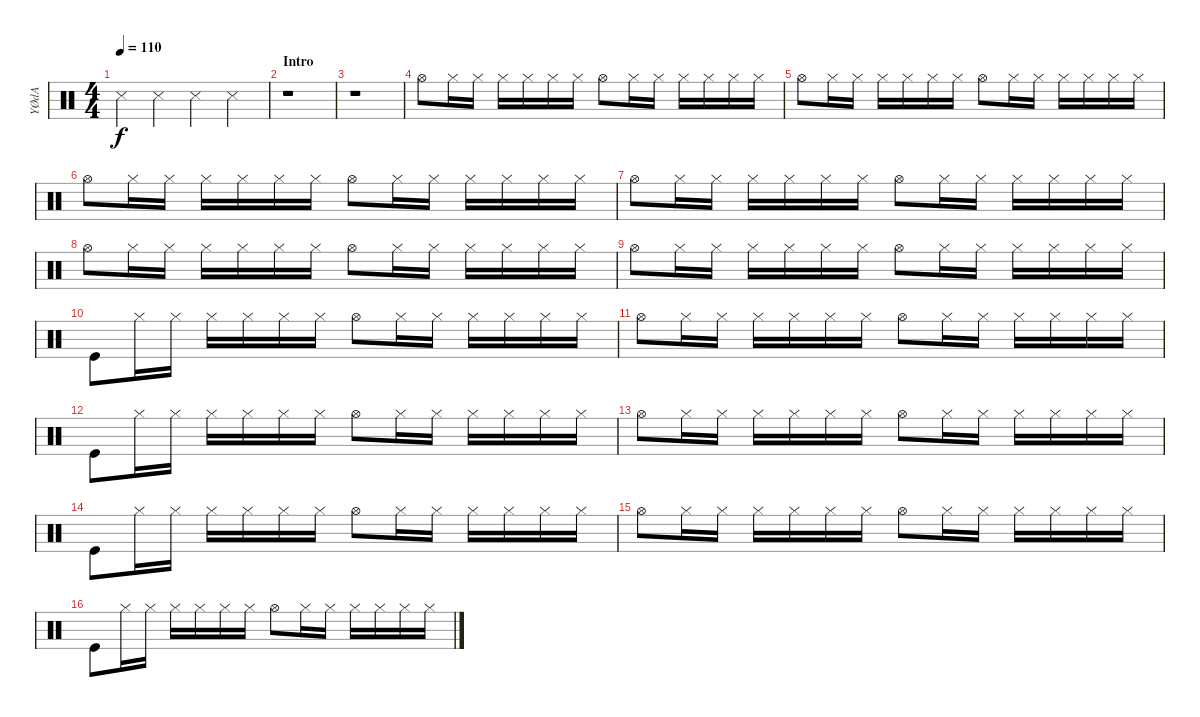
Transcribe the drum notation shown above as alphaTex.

\track ("YØdA" "YØdA") {instrument percussion}
\staff {score}
\articulation defaults
\ts (4 4)
\tempo 110
\clef neutral
\ks c "Snare (side stick) 3".4{dy f} "Snare (side stick) 3".4 "Snare (side stick) 3".4 "Snare (side stick) 3".4
|
\section ("" "Intro")
r.1 |
r.1 |
"Hi-Hat (open)".8 "Hi-Hat (closed)".16 "Hi-Hat (closed)".16 "Hi-Hat (closed)".16 "Hi-Hat (closed)".16 "Hi-Hat (closed)".16 "Hi-Hat (closed)".16 "Hi-Hat (open)".8 "Hi-Hat (closed)".16 "Hi-Hat (closed)".16 "Hi-Hat (closed)".16 "Hi-Hat (closed)".16 "Hi-Hat (closed)".16 "Hi-Hat (closed)".16 |
"Hi-Hat (open)".8 "Hi-Hat (closed)".16 "Hi-Hat (closed)".16 "Hi-Hat (closed)".16 "Hi-Hat (closed)".16 "Hi-Hat (closed)".16 "Hi-Hat (closed)".16 "Hi-Hat (open)".8 "Hi-Hat (closed)".16 "Hi-Hat (closed)".16 "Hi-Hat (closed)".16 "Hi-Hat (closed)".16 "Hi-Hat (closed)".16 "Hi-Hat (closed)".16 |
"Hi-Hat (open)".8 "Hi-Hat (closed)".16 "Hi-Hat (closed)".16 "Hi-Hat (closed)".16 "Hi-Hat (closed)".16 "Hi-Hat (closed)".16 "Hi-Hat (closed)".16 "Hi-Hat (open)".8 "Hi-Hat (closed)".16 "Hi-Hat (closed)".16 "Hi-Hat (closed)".16 "Hi-Hat (closed)".16 "Hi-Hat (closed)".16 "Hi-Hat (closed)".16 |
"Hi-Hat (open)".8 "Hi-Hat (closed)".16 "Hi-Hat (closed)".16 "Hi-Hat (closed)".16 "Hi-Hat (closed)".16 "Hi-Hat (closed)".16 "Hi-Hat (closed)".16 "Hi-Hat (open)".8 "Hi-Hat (closed)".16 "Hi-Hat (closed)".16 "Hi-Hat (closed)".16 "Hi-Hat (closed)".16 "Hi-Hat (closed)".16 "Hi-Hat (closed)".16 |
"Hi-Hat (open)".8 "Hi-Hat (closed)".16 "Hi-Hat (closed)".16 "Hi-Hat (closed)".16 "Hi-Hat (closed)".16 "Hi-Hat (closed)".16 "Hi-Hat (closed)".16 "Hi-Hat (open)".8 "Hi-Hat (closed)".16 "Hi-Hat (closed)".16 "Hi-Hat (closed)".16 "Hi-Hat (closed)".16 "Hi-Hat (closed)".16 "Hi-Hat (closed)".16 |
"Hi-Hat (open)".8 "Hi-Hat (closed)".16 "Hi-Hat (closed)".16 "Hi-Hat (closed)".16 "Hi-Hat (closed)".16 "Hi-Hat (closed)".16 "Hi-Hat (closed)".16 "Hi-Hat (open)".8 "Hi-Hat (closed)".16 "Hi-Hat (closed)".16 "Hi-Hat (closed)".16 "Hi-Hat (closed)".16 "Hi-Hat (closed)".16 "Hi-Hat (closed)".16 |
"Kick (hit)".8 "Hi-Hat (closed)".16 "Hi-Hat (closed)".16 "Hi-Hat (closed)".16 "Hi-Hat (closed)".16 "Hi-Hat (closed)".16 "Hi-Hat (closed)".16 "Hi-Hat (open)".8 "Hi-Hat (closed)".16 "Hi-Hat (closed)".16 "Hi-Hat (closed)".16 "Hi-Hat (closed)".16 "Hi-Hat (closed)".16 "Hi-Hat (closed)".16 |
"Hi-Hat (open)".8 "Hi-Hat (closed)".16 "Hi-Hat (closed)".16 "Hi-Hat (closed)".16 "Hi-Hat (closed)".16 "Hi-Hat (closed)".16 "Hi-Hat (closed)".16 "Hi-Hat (open)".8 "Hi-Hat (closed)".16 "Hi-Hat (closed)".16 "Hi-Hat (closed)".16 "Hi-Hat (closed)".16 "Hi-Hat (closed)".16 "Hi-Hat (closed)".16 |
"Kick (hit)".8 "Hi-Hat (closed)".16 "Hi-Hat (closed)".16 "Hi-Hat (closed)".16 "Hi-Hat (closed)".16 "Hi-Hat (closed)".16 "Hi-Hat (closed)".16 "Hi-Hat (open)".8 "Hi-Hat (closed)".16 "Hi-Hat (closed)".16 "Hi-Hat (closed)".16 "Hi-Hat (closed)".16 "Hi-Hat (closed)".16 "Hi-Hat (closed)".16 |
"Hi-Hat (open)".8 "Hi-Hat (closed)".16 "Hi-Hat (closed)".16 "Hi-Hat (closed)".16 "Hi-Hat (closed)".16 "Hi-Hat (closed)".16 "Hi-Hat (closed)".16 "Hi-Hat (open)".8 "Hi-Hat (closed)".16 "Hi-Hat (closed)".16 "Hi-Hat (closed)".16 "Hi-Hat (closed)".16 "Hi-Hat (closed)".16 "Hi-Hat (closed)".16 |
"Kick (hit)".8 "Hi-Hat (closed)".16 "Hi-Hat (closed)".16 "Hi-Hat (closed)".16 "Hi-Hat (closed)".16 "Hi-Hat (closed)".16 "Hi-Hat (closed)".16 "Hi-Hat (open)".8 "Hi-Hat (closed)".16 "Hi-Hat (closed)".16 "Hi-Hat (closed)".16 "Hi-Hat (closed)".16 "Hi-Hat (closed)".16 "Hi-Hat (closed)".16 |
"Hi-Hat (open)".8 "Hi-Hat (closed)".16 "Hi-Hat (closed)".16 "Hi-Hat (closed)".16 "Hi-Hat (closed)".16 "Hi-Hat (closed)".16 "Hi-Hat (closed)".16 "Hi-Hat (open)".8 "Hi-Hat (closed)".16 "Hi-Hat (closed)".16 "Hi-Hat (closed)".16 "Hi-Hat (closed)".16 "Hi-Hat (closed)".16 "Hi-Hat (closed)".16 |
"Kick (hit)".8 "Hi-Hat (closed)".16 "Hi-Hat (closed)".16 "Hi-Hat (closed)".16 "Hi-Hat (closed)".16 "Hi-Hat (closed)".16 "Hi-Hat (closed)".16 "Hi-Hat (open)".8 "Hi-Hat (closed)".16 "Hi-Hat (closed)".16 "Hi-Hat (closed)".16 "Hi-Hat (closed)".16 "Hi-Hat (closed)".16 "Hi-Hat (closed)".16
